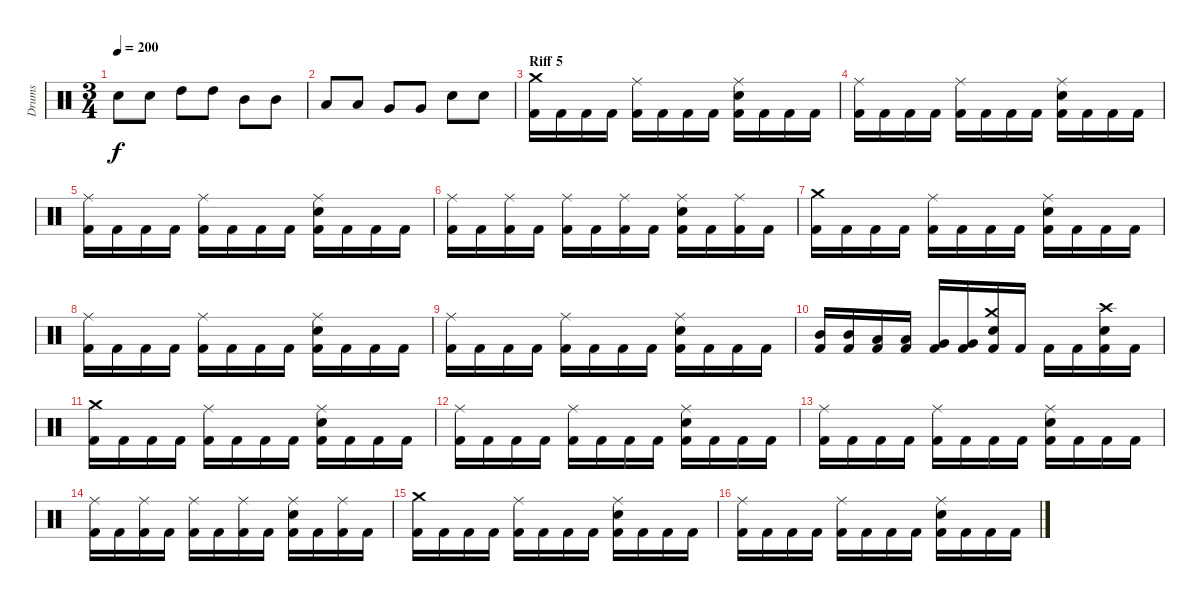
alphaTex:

\track ("Drums" "Drums") {instrument percussion}
\staff {score}
\articulation defaults
\ts (3 4)
\tempo 200
\clef neutral
\ks c "Electric Snare (hit)".8{dy f} "Electric Snare (hit)".8 "High Tom (hit)".8 "High Tom (hit)".8 "Mid Tom (hit)".8 "Mid Tom (hit)".8
|
"Low Tom (hit)".8 "Low Tom (hit)".8 "Very Low Tom (hit)".8 "Very Low Tom (hit)".8 "Electric Snare (hit)".8 "Electric Snare (hit)".8 |
\section ("" "Riff 5")
("Crash medium (hit)" "Kick (hit) 2").16 "Kick (hit) 2".16 "Kick (hit) 2".16 "Kick (hit) 2".16 ("Ride (middle)" "Kick (hit) 2").16 "Kick (hit) 2".16 "Kick (hit) 2".16 "Kick (hit) 2".16 ("Ride (middle)" "Electric Snare (hit)" "Kick (hit) 2").16 "Kick (hit) 2".16 "Kick (hit) 2".16 "Kick (hit) 2".16 |
("Ride (middle)" "Kick (hit) 2").16 "Kick (hit) 2".16 "Kick (hit) 2".16 "Kick (hit) 2".16 ("Ride (middle)" "Kick (hit) 2").16 "Kick (hit) 2".16 "Kick (hit) 2".16 "Kick (hit) 2".16 ("Ride (middle)" "Electric Snare (hit)" "Kick (hit) 2").16 "Kick (hit) 2".16 "Kick (hit) 2".16 "Kick (hit) 2".16 |
("Ride (middle)" "Kick (hit) 2").16 "Kick (hit) 2".16 "Kick (hit) 2".16 "Kick (hit) 2".16 ("Ride (middle)" "Kick (hit) 2").16 "Kick (hit) 2".16 "Kick (hit) 2".16 "Kick (hit) 2".16 ("Ride (middle)" "Electric Snare (hit)" "Kick (hit) 2").16 "Kick (hit) 2".16 "Kick (hit) 2".16 "Kick (hit) 2".16 |
("Ride (middle)" "Kick (hit) 2").16 "Kick (hit) 2".16 ("Ride (middle)" "Kick (hit) 2").16 "Kick (hit) 2".16 ("Ride (middle)" "Kick (hit) 2").16 "Kick (hit) 2".16 ("Ride (middle)" "Kick (hit) 2").16 "Kick (hit) 2".16 ("Ride (middle)" "Electric Snare (hit)" "Kick (hit) 2").16 "Kick (hit) 2".16 ("Ride (middle)" "Kick (hit) 2").16 "Kick (hit) 2".16 |
("Crash medium (hit)" "Kick (hit) 2").16 "Kick (hit) 2".16 "Kick (hit) 2".16 "Kick (hit) 2".16 ("Ride (middle)" "Kick (hit) 2").16 "Kick (hit) 2".16 "Kick (hit) 2".16 "Kick (hit) 2".16 ("Ride (middle)" "Electric Snare (hit)" "Kick (hit) 2").16 "Kick (hit) 2".16 "Kick (hit) 2".16 "Kick (hit) 2".16 |
("Ride (middle)" "Kick (hit) 2").16 "Kick (hit) 2".16 "Kick (hit) 2".16 "Kick (hit) 2".16 ("Ride (middle)" "Kick (hit) 2").16 "Kick (hit) 2".16 "Kick (hit) 2".16 "Kick (hit) 2".16 ("Ride (middle)" "Electric Snare (hit)" "Kick (hit) 2").16 "Kick (hit) 2".16 "Kick (hit) 2".16 "Kick (hit) 2".16 |
("Ride (middle)" "Kick (hit) 2").16 "Kick (hit) 2".16 "Kick (hit) 2".16 "Kick (hit) 2".16 ("Ride (middle)" "Kick (hit) 2").16 "Kick (hit) 2".16 "Kick (hit) 2".16 "Kick (hit) 2".16 ("Ride (middle)" "Electric Snare (hit)" "Kick (hit) 2").16 "Kick (hit) 2".16 "Kick (hit) 2".16 "Kick (hit) 2".16 |
("Mid Tom (hit)" "Kick (hit) 2").16 ("Mid Tom (hit)" "Kick (hit) 2").16 ("Low Tom (hit)" "Kick (hit) 2").16 ("Low Tom (hit)" "Kick (hit) 2").16 ("Very Low Tom (hit)" "Kick (hit) 2").16 ("Very Low Tom (hit)" "Kick (hit) 2").16 ("Crash medium (hit)" "Electric Snare (hit)" "Kick (hit) 2").16 "Kick (hit) 2".16 "Kick (hit) 2".16 "Kick (hit) 2".16 ("Crash high (hit)" "Electric Snare (hit)" "Kick (hit) 2").16 "Kick (hit) 2".16 |
("Crash medium (hit)" "Kick (hit) 2").16 "Kick (hit) 2".16 "Kick (hit) 2".16 "Kick (hit) 2".16 ("Ride (middle)" "Kick (hit) 2").16 "Kick (hit) 2".16 "Kick (hit) 2".16 "Kick (hit) 2".16 ("Ride (middle)" "Electric Snare (hit)" "Kick (hit) 2").16 "Kick (hit) 2".16 "Kick (hit) 2".16 "Kick (hit) 2".16 |
("Ride (middle)" "Kick (hit) 2").16 "Kick (hit) 2".16 "Kick (hit) 2".16 "Kick (hit) 2".16 ("Ride (middle)" "Kick (hit) 2").16 "Kick (hit) 2".16 "Kick (hit) 2".16 "Kick (hit) 2".16 ("Ride (middle)" "Electric Snare (hit)" "Kick (hit) 2").16 "Kick (hit) 2".16 "Kick (hit) 2".16 "Kick (hit) 2".16 |
("Ride (middle)" "Kick (hit) 2").16 "Kick (hit) 2".16 "Kick (hit) 2".16 "Kick (hit) 2".16 ("Ride (middle)" "Kick (hit) 2").16 "Kick (hit) 2".16 "Kick (hit) 2".16 "Kick (hit) 2".16 ("Ride (middle)" "Electric Snare (hit)" "Kick (hit) 2").16 "Kick (hit) 2".16 "Kick (hit) 2".16 "Kick (hit) 2".16 |
("Ride (middle)" "Kick (hit) 2").16 "Kick (hit) 2".16 ("Ride (middle)" "Kick (hit) 2").16 "Kick (hit) 2".16 ("Ride (middle)" "Kick (hit) 2").16 "Kick (hit) 2".16 ("Ride (middle)" "Kick (hit) 2").16 "Kick (hit) 2".16 ("Ride (middle)" "Electric Snare (hit)" "Kick (hit) 2").16 "Kick (hit) 2".16 ("Ride (middle)" "Kick (hit) 2").16 "Kick (hit) 2".16 |
("Crash medium (hit)" "Kick (hit) 2").16 "Kick (hit) 2".16 "Kick (hit) 2".16 "Kick (hit) 2".16 ("Ride (middle)" "Kick (hit) 2").16 "Kick (hit) 2".16 "Kick (hit) 2".16 "Kick (hit) 2".16 ("Ride (middle)" "Electric Snare (hit)" "Kick (hit) 2").16 "Kick (hit) 2".16 "Kick (hit) 2".16 "Kick (hit) 2".16 |
("Ride (middle)" "Kick (hit) 2").16 "Kick (hit) 2".16 "Kick (hit) 2".16 "Kick (hit) 2".16 ("Ride (middle)" "Kick (hit) 2").16 "Kick (hit) 2".16 "Kick (hit) 2".16 "Kick (hit) 2".16 ("Ride (middle)" "Electric Snare (hit)" "Kick (hit) 2").16 "Kick (hit) 2".16 "Kick (hit) 2".16 "Kick (hit) 2".16
